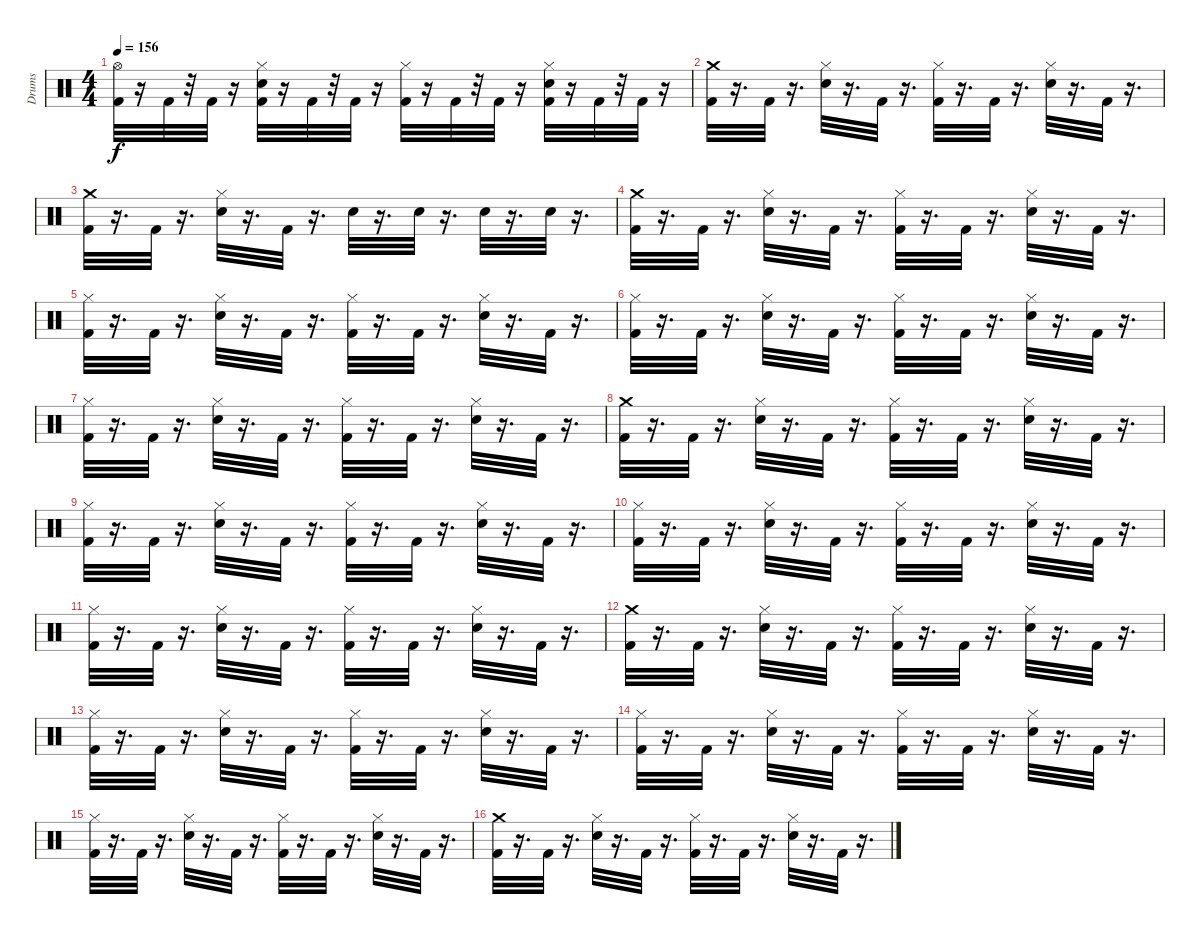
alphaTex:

\track ("Drums" "Drums") {instrument percussion}
\staff {score}
\articulation defaults
\ts (4 4)
\tempo 156
\clef neutral
\ks c
("Hi-Hat (open)" "Kick (hit) 2").32{dy f} r.16 "Kick (hit) 2".32 r.32 "Kick (hit) 2".32 r.16 ("Snare (hit) 2" "Hi-Hat (closed)" "Kick (hit) 2").32 r.16 "Kick (hit) 2".32 r.32 "Kick (hit) 2".32 r.16 ("Hi-Hat (closed)" "Kick (hit) 2").32 r.16 "Kick (hit) 2".32 r.32 "Kick (hit) 2".32 r.16 ("Hi-Hat (closed)" "Snare (hit) 2" "Kick (hit) 2").32 r.16 "Kick (hit) 2".32 r.32 "Kick (hit) 2".32 r.16 |
("Crash medium (hit)" "Kick (hit) 2").32 r.16{d} "Kick (hit) 2".32 r.16{d} ("Snare (hit) 2" "Hi-Hat (closed)").32 r.16{d} "Kick (hit) 2".32 r.16{d} ("Hi-Hat (closed)" "Kick (hit) 2").32 r.16{d} "Kick (hit) 2".32 r.16{d} ("Snare (hit) 2" "Hi-Hat (closed)").32 r.16{d} "Kick (hit) 2".32 r.16{d} |
("Crash medium (hit)" "Kick (hit) 2").32 r.16{d} "Kick (hit) 2".32 r.16{d} ("Snare (hit) 2" "Hi-Hat (closed)").32 r.16{d} "Kick (hit) 2".32 r.16{d} "Snare (hit) 2".32 r.16{d} "Snare (hit) 2".32 r.16{d} "Snare (hit) 2".32 r.16{d} "Snare (hit) 2".32 r.16{d} |
("Crash medium (hit)" "Kick (hit) 2").32 r.16{d} "Kick (hit) 2".32 r.16{d} ("Snare (hit) 2" "Hi-Hat (closed)").32 r.16{d} "Kick (hit) 2".32 r.16{d} ("Hi-Hat (closed)" "Kick (hit) 2").32 r.16{d} "Kick (hit) 2".32 r.16{d} ("Snare (hit) 2" "Hi-Hat (closed)").32 r.16{d} "Kick (hit) 2".32 r.16{d} |
("Kick (hit) 2" "Hi-Hat (closed)").32 r.16{d} "Kick (hit) 2".32 r.16{d} ("Hi-Hat (closed)" "Snare (hit) 2").32 r.16{d} "Kick (hit) 2".32 r.16{d} ("Hi-Hat (closed)" "Kick (hit) 2").32 r.16{d} "Kick (hit) 2".32 r.16{d} ("Snare (hit) 2" "Hi-Hat (closed)").32 r.16{d} "Kick (hit) 2".32 r.16{d} |
("Kick (hit) 2" "Hi-Hat (closed)").32 r.16{d} "Kick (hit) 2".32 r.16{d} ("Hi-Hat (closed)" "Snare (hit) 2").32 r.16{d} "Kick (hit) 2".32 r.16{d} ("Kick (hit) 2" "Hi-Hat (closed)").32 r.16{d} "Kick (hit) 2".32 r.16{d} ("Hi-Hat (closed)" "Snare (hit) 2").32 r.16{d} "Kick (hit) 2".32 r.16{d} |
("Hi-Hat (closed)" "Kick (hit) 2").32 r.16{d} "Kick (hit) 2".32 r.16{d} ("Snare (hit) 2" "Hi-Hat (closed)").32 r.16{d} "Kick (hit) 2".32 r.16{d} ("Kick (hit) 2" "Hi-Hat (closed)").32 r.16{d} "Kick (hit) 2".32 r.16{d} ("Hi-Hat (closed)" "Snare (hit) 2").32 r.16{d} "Kick (hit) 2".32 r.16{d} |
("Crash medium (hit)" "Kick (hit) 2").32 r.16{d} "Kick (hit) 2".32 r.16{d} ("Snare (hit) 2" "Hi-Hat (closed)").32 r.16{d} "Kick (hit) 2".32 r.16{d} ("Hi-Hat (closed)" "Kick (hit) 2").32 r.16{d} "Kick (hit) 2".32 r.16{d} ("Snare (hit) 2" "Hi-Hat (closed)").32 r.16{d} "Kick (hit) 2".32 r.16{d} |
("Kick (hit) 2" "Hi-Hat (closed)").32 r.16{d} "Kick (hit) 2".32 r.16{d} ("Hi-Hat (closed)" "Snare (hit) 2").32 r.16{d} "Kick (hit) 2".32 r.16{d} ("Hi-Hat (closed)" "Kick (hit) 2").32 r.16{d} "Kick (hit) 2".32 r.16{d} ("Snare (hit) 2" "Hi-Hat (closed)").32 r.16{d} "Kick (hit) 2".32 r.16{d} |
("Kick (hit) 2" "Hi-Hat (closed)").32 r.16{d} "Kick (hit) 2".32 r.16{d} ("Hi-Hat (closed)" "Snare (hit) 2").32 r.16{d} "Kick (hit) 2".32 r.16{d} ("Kick (hit) 2" "Hi-Hat (closed)").32 r.16{d} "Kick (hit) 2".32 r.16{d} ("Hi-Hat (closed)" "Snare (hit) 2").32 r.16{d} "Kick (hit) 2".32 r.16{d} |
("Hi-Hat (closed)" "Kick (hit) 2").32 r.16{d} "Kick (hit) 2".32 r.16{d} ("Snare (hit) 2" "Hi-Hat (closed)").32 r.16{d} "Kick (hit) 2".32 r.16{d} ("Kick (hit) 2" "Hi-Hat (closed)").32 r.16{d} "Kick (hit) 2".32 r.16{d} ("Hi-Hat (closed)" "Snare (hit) 2").32 r.16{d} "Kick (hit) 2".32 r.16{d} |
("Crash medium (hit)" "Kick (hit) 2").32 r.16{d} "Kick (hit) 2".32 r.16{d} ("Snare (hit) 2" "Hi-Hat (closed)").32 r.16{d} "Kick (hit) 2".32 r.16{d} ("Hi-Hat (closed)" "Kick (hit) 2").32 r.16{d} "Kick (hit) 2".32 r.16{d} ("Snare (hit) 2" "Hi-Hat (closed)").32 r.16{d} "Kick (hit) 2".32 r.16{d} |
("Kick (hit) 2" "Hi-Hat (closed)").32 r.16{d} "Kick (hit) 2".32 r.16{d} ("Hi-Hat (closed)" "Snare (hit) 2").32 r.16{d} "Kick (hit) 2".32 r.16{d} ("Hi-Hat (closed)" "Kick (hit) 2").32 r.16{d} "Kick (hit) 2".32 r.16{d} ("Snare (hit) 2" "Hi-Hat (closed)").32 r.16{d} "Kick (hit) 2".32 r.16{d} |
("Kick (hit) 2" "Hi-Hat (closed)").32 r.16{d} "Kick (hit) 2".32 r.16{d} ("Hi-Hat (closed)" "Snare (hit) 2").32 r.16{d} "Kick (hit) 2".32 r.16{d} ("Kick (hit) 2" "Hi-Hat (closed)").32 r.16{d} "Kick (hit) 2".32 r.16{d} ("Hi-Hat (closed)" "Snare (hit) 2").32 r.16{d} "Kick (hit) 2".32 r.16{d} |
("Hi-Hat (closed)" "Kick (hit) 2").32 r.16{d} "Kick (hit) 2".32 r.16{d} ("Snare (hit) 2" "Hi-Hat (closed)").32 r.16{d} "Kick (hit) 2".32 r.16{d} ("Kick (hit) 2" "Hi-Hat (closed)").32 r.16{d} "Kick (hit) 2".32 r.16{d} ("Hi-Hat (closed)" "Snare (hit) 2").32 r.16{d} "Kick (hit) 2".32 r.16{d} |
("Crash medium (hit)" "Kick (hit) 2").32 r.16{d} "Kick (hit) 2".32 r.16{d} ("Snare (hit) 2" "Hi-Hat (closed)").32 r.16{d} "Kick (hit) 2".32 r.16{d} ("Hi-Hat (closed)" "Kick (hit) 2").32 r.16{d} "Kick (hit) 2".32 r.16{d} ("Snare (hit) 2" "Hi-Hat (closed)").32 r.16{d} "Kick (hit) 2".32 r.16{d}
